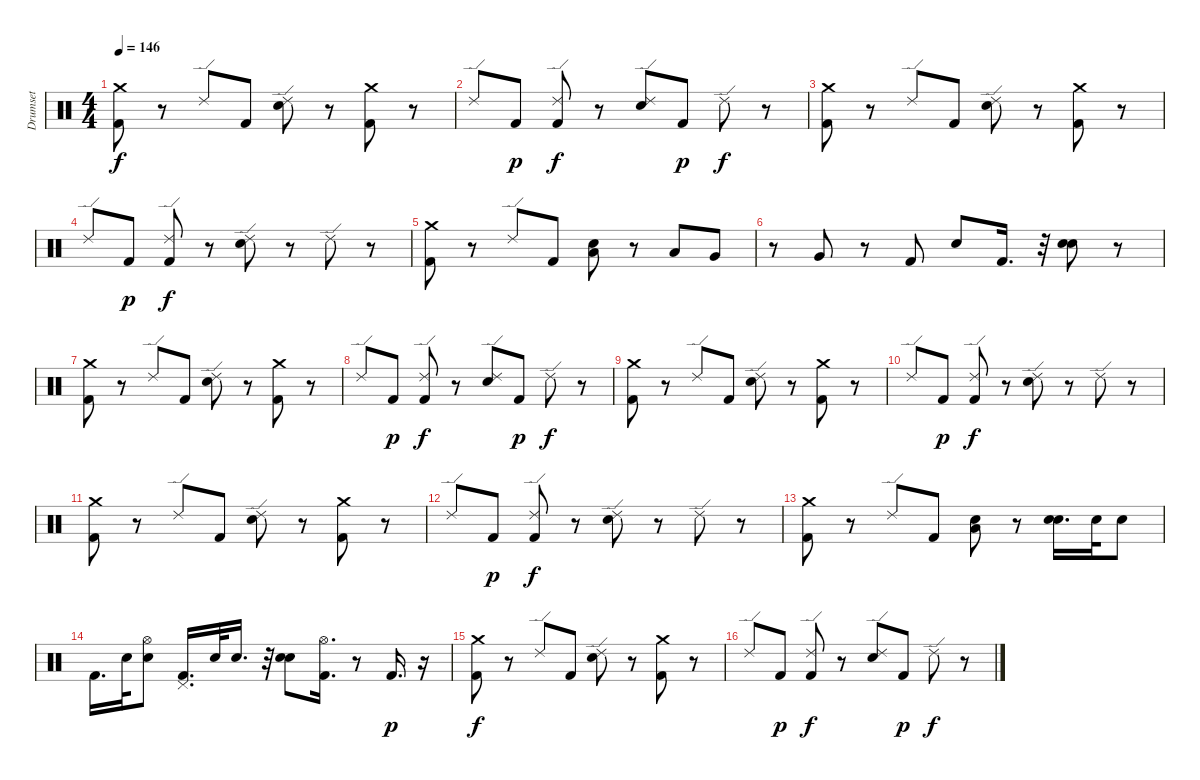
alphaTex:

\track ("Drumset" "Drumset") {instrument percussion}
\staff {score}
\articulation defaults
\ts (4 4)
\tempo 146
\clef neutral
\ks c
("Kick (hit) 2" "Crash medium (hit)").8{dy f} r.8 "Ride (edge) 2".8 "Kick (hit) 2".8 ("Electric Snare (hit)" "Ride (edge) 2").8 r.8 ("Kick (hit) 2" "Crash medium (hit)").8 r.8 |
"Ride (edge) 2".8 "Kick (hit) 2".8{dy p} ("Kick (hit) 2" "Ride (edge) 2").8{dy f} r.8 ("Electric Snare (hit)" "Ride (edge) 2").8 "Kick (hit) 2".8{dy p} "Ride (edge) 2".8{dy f} r.8 |
("Kick (hit) 2" "Crash medium (hit)").8 r.8 "Ride (edge) 2".8 "Kick (hit) 2".8 ("Electric Snare (hit)" "Ride (edge) 2").8 r.8 ("Kick (hit) 2" "Crash medium (hit)").8 r.8 |
"Ride (edge) 2".8 "Kick (hit) 2".8{dy p} ("Kick (hit) 2" "Ride (edge) 2").8{dy f} r.8 ("Electric Snare (hit)" "Ride (edge) 2").8 r.8 "Ride (edge) 2".8 r.8 |
("Kick (hit) 2" "Crash medium (hit)").8 r.8 "Ride (edge) 2".8 "Kick (hit) 2".8 ("Electric Snare (hit)" "Low Floor Tom (hit)").8 r.8 "Low Tom (hit)".8 "Very Low Tom (hit)".8 |
r.8 "Very Low Tom (hit)".8 r.8 "Kick (hit) 2".8 "Electric Snare (hit)".8 "Kick (hit) 2".16{d} r.32 ("Electric Snare (hit)" "Electric Snare (hit)").8 r.8 |
("Kick (hit) 2" "Crash medium (hit)").8 r.8 "Ride (edge) 2".8 "Kick (hit) 2".8 ("Electric Snare (hit)" "Ride (edge) 2").8 r.8 ("Kick (hit) 2" "Crash medium (hit)").8 r.8 |
"Ride (edge) 2".8 "Kick (hit) 2".8{dy p} ("Kick (hit) 2" "Ride (edge) 2").8{dy f} r.8 ("Electric Snare (hit)" "Ride (edge) 2").8 "Kick (hit) 2".8{dy p} "Ride (edge) 2".8{dy f} r.8 |
("Kick (hit) 2" "Crash medium (hit)").8 r.8 "Ride (edge) 2".8 "Kick (hit) 2".8 ("Electric Snare (hit)" "Ride (edge) 2").8 r.8 ("Kick (hit) 2" "Crash medium (hit)").8 r.8 |
"Ride (edge) 2".8 "Kick (hit) 2".8{dy p} ("Kick (hit) 2" "Ride (edge) 2").8{dy f} r.8 ("Electric Snare (hit)" "Ride (edge) 2").8 r.8 "Ride (edge) 2".8 r.8 |
("Kick (hit) 2" "Crash medium (hit)").8 r.8 "Ride (edge) 2".8 "Kick (hit) 2".8 ("Electric Snare (hit)" "Ride (edge) 2").8 r.8 ("Kick (hit) 2" "Crash medium (hit)").8 r.8 |
"Ride (edge) 2".8 "Kick (hit) 2".8{dy p} ("Kick (hit) 2" "Ride (edge) 2").8{dy f} r.8 ("Electric Snare (hit)" "Ride (edge) 2").8 r.8 "Ride (edge) 2".8 r.8 |
("Kick (hit) 2" "Crash medium (hit)").8 r.8 "Ride (edge) 2".8 "Kick (hit) 2".8 ("Electric Snare (hit)" "Low Floor Tom (hit)").8 r.8 ("Electric Snare (hit)" "Electric Snare (hit)").16{d} "Electric Snare (hit)".32 "Electric Snare (hit)".8 |
"Kick (hit) 2".16{d} "Electric Snare (hit)".32 ("Electric Snare (hit)" "Hi-Hat (open)").8 ("Kick (hit) 2" "Pedal Hi-Hat (hit)").16{d} "Electric Snare (hit)".32 "Electric Snare (hit)".16{d} r.32 ("Electric Snare (hit)" "Electric Snare (hit)").8 ("Kick (hit) 2" "Hi-Hat (open)").16{d} r.8 "Kick (hit) 2".16{d dy p} r.16 |
("Kick (hit) 2" "Crash medium (hit)").8{dy f} r.8 "Ride (edge) 2".8 "Kick (hit) 2".8 ("Electric Snare (hit)" "Ride (edge) 2").8 r.8 ("Kick (hit) 2" "Crash medium (hit)").8 r.8 |
"Ride (edge) 2".8 "Kick (hit) 2".8{dy p} ("Kick (hit) 2" "Ride (edge) 2").8{dy f} r.8 ("Electric Snare (hit)" "Ride (edge) 2").8 "Kick (hit) 2".8{dy p} "Ride (edge) 2".8{dy f} r.8
